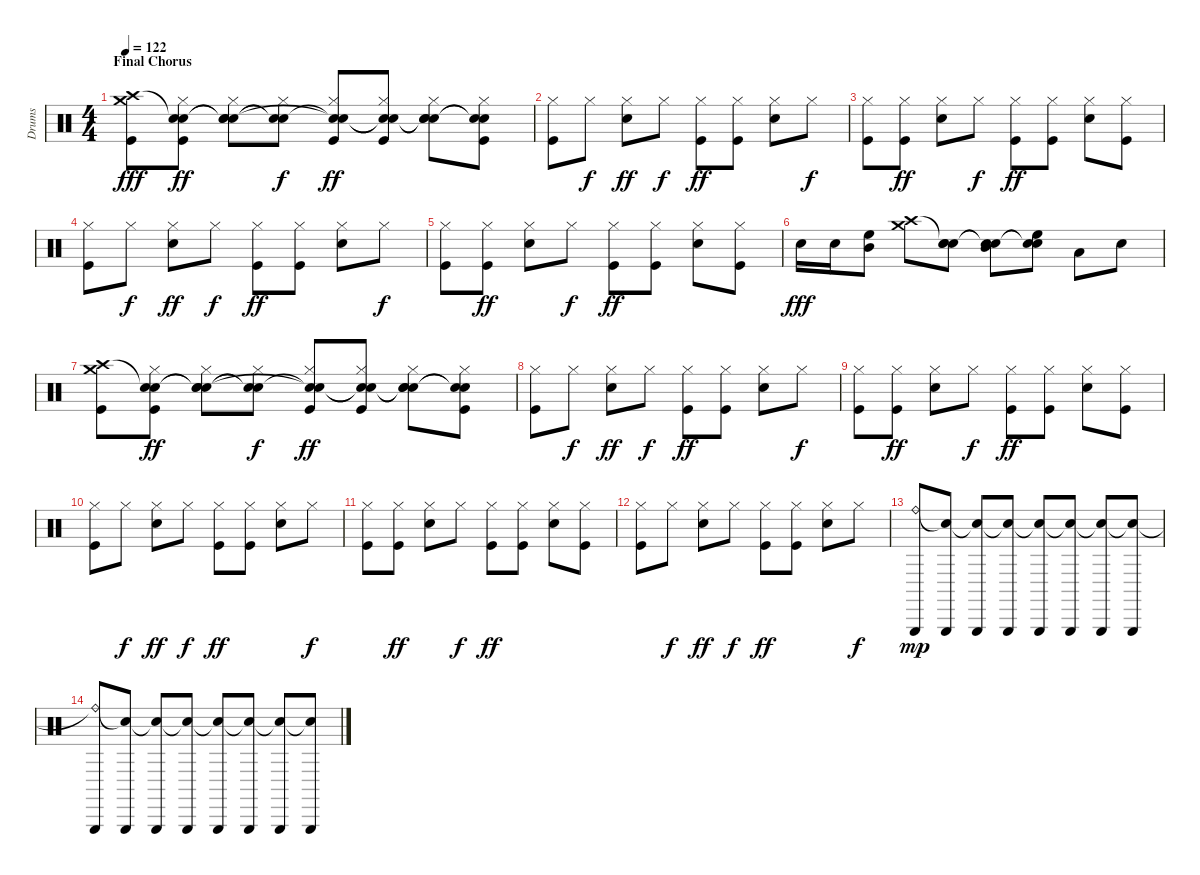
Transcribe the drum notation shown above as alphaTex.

\track ("Drums" "Drums") {instrument percussion}
\staff {score}
\articulation defaults
\ts (4 4)
\section ("" "Final Chorus")
\tempo 122
\clef neutral
\ks c
("Kick (hit)" "Crash medium (hit)" "Crash high (hit)").8{dy fff} ("Hi-Hat (closed)" "Kick (hit)" "Snare (hit)"{t} "Snare (hit)").8{dy ff} ("Hi-Hat (closed)" "Snare (hit) 2" "Snare (hit)"{t} "Snare (hit)"{t}).8 ("Hi-Hat (closed)" "Snare (hit)"{t} "Snare (hit)"{t}).8{dy f} ("Hi-Hat (closed)" "Kick (hit)" "Snare (hit)"{t} "Snare (hit)"{t}).8{dy ff} ("Hi-Hat (closed)" "Kick (hit)" "Snare (hit)"{t} "Snare (hit)"{t}).8 ("Hi-Hat (closed)" "Snare (hit) 2" "Snare (hit)"{t} "Snare (hit)"{t}).8 ("Hi-Hat (closed)" "Kick (hit)" "Snare (hit)"{t} "Snare (hit)"{t}).8 |
("Hi-Hat (closed)" "Kick (hit)").8 "Hi-Hat (closed)".8{dy f} ("Hi-Hat (closed)" "Snare (hit) 2").8{dy ff} "Hi-Hat (closed)".8{dy f} ("Hi-Hat (closed)" "Kick (hit)").8{dy ff} ("Hi-Hat (closed)" "Kick (hit)").8 ("Hi-Hat (closed)" "Snare (hit) 2").8 "Hi-Hat (closed)".8{dy f} |
("Hi-Hat (closed)" "Kick (hit)").8 ("Hi-Hat (closed)" "Kick (hit)").8{dy ff} ("Hi-Hat (closed)" "Snare (hit) 2").8 "Hi-Hat (closed)".8{dy f} ("Hi-Hat (closed)" "Kick (hit)").8{dy ff} ("Hi-Hat (closed)" "Kick (hit)").8 ("Hi-Hat (closed)" "Snare (hit) 2").8 ("Hi-Hat (closed)" "Kick (hit)").8 |
("Hi-Hat (closed)" "Kick (hit)").8 "Hi-Hat (closed)".8{dy f} ("Hi-Hat (closed)" "Snare (hit) 2").8{dy ff} "Hi-Hat (closed)".8{dy f} ("Hi-Hat (closed)" "Kick (hit)").8{dy ff} ("Hi-Hat (closed)" "Kick (hit)").8 ("Hi-Hat (closed)" "Snare (hit) 2").8 "Hi-Hat (closed)".8{dy f} |
("Hi-Hat (closed)" "Kick (hit)").8 ("Hi-Hat (closed)" "Kick (hit)").8{dy ff} ("Hi-Hat (closed)" "Snare (hit) 2").8 "Hi-Hat (closed)".8{dy f} ("Hi-Hat (closed)" "Kick (hit)").8{dy ff} ("Hi-Hat (closed)" "Kick (hit)").8 ("Hi-Hat (closed)" "Snare (hit) 2").8 ("Hi-Hat (closed)" "Kick (hit)").8 |
"Snare (hit) 2".16{dy fff} "Snare (hit) 2".16 ("Mid Tom (hit)" "High Floor Tom (hit)").8 ("Crash medium (hit)" "Crash high (hit)").8 ("Snare (hit) 2" "Snare (hit)"{t} "Snare (hit)").8 ("Mid Tom (hit)" "Snare (hit)"{t} "Snare (hit)"{t}).8 ("High Floor Tom (hit)" "Snare (hit)"{t} "Snare (hit)"{t}).8 "Low Floor Tom (hit)".8 "Snare (hit) 2".8 |
("Kick (hit)" "Crash medium (hit)" "Crash high (hit)").8 ("Hi-Hat (closed)" "Kick (hit)" "Snare (hit)"{t} "Snare (hit)").8{dy ff} ("Hi-Hat (closed)" "Snare (hit) 2" "Snare (hit)"{t} "Snare (hit)"{t}).8 ("Hi-Hat (closed)" "Snare (hit)"{t} "Snare (hit)"{t}).8{dy f} ("Hi-Hat (closed)" "Kick (hit)" "Snare (hit)"{t} "Snare (hit)"{t}).8{dy ff} ("Hi-Hat (closed)" "Kick (hit)" "Snare (hit)"{t} "Snare (hit)"{t}).8 ("Hi-Hat (closed)" "Snare (hit) 2" "Snare (hit)"{t} "Snare (hit)"{t}).8 ("Hi-Hat (closed)" "Kick (hit)" "Snare (hit)"{t} "Snare (hit)"{t}).8 |
("Hi-Hat (closed)" "Kick (hit)").8 "Hi-Hat (closed)".8{dy f} ("Hi-Hat (closed)" "Snare (hit) 2").8{dy ff} "Hi-Hat (closed)".8{dy f} ("Hi-Hat (closed)" "Kick (hit)").8{dy ff} ("Hi-Hat (closed)" "Kick (hit)").8 ("Hi-Hat (closed)" "Snare (hit) 2").8 "Hi-Hat (closed)".8{dy f} |
("Hi-Hat (closed)" "Kick (hit)").8 ("Hi-Hat (closed)" "Kick (hit)").8{dy ff} ("Hi-Hat (closed)" "Snare (hit) 2").8 "Hi-Hat (closed)".8{dy f} ("Hi-Hat (closed)" "Kick (hit)").8{dy ff} ("Hi-Hat (closed)" "Kick (hit)").8 ("Hi-Hat (closed)" "Snare (hit) 2").8 ("Hi-Hat (closed)" "Kick (hit)").8 |
("Hi-Hat (closed)" "Kick (hit)").8 "Hi-Hat (closed)".8{dy f} ("Hi-Hat (closed)" "Snare (hit) 2").8{dy ff} "Hi-Hat (closed)".8{dy f} ("Hi-Hat (closed)" "Kick (hit)").8{dy ff} ("Hi-Hat (closed)" "Kick (hit)").8 ("Hi-Hat (closed)" "Snare (hit) 2").8 "Hi-Hat (closed)".8{dy f} |
("Hi-Hat (closed)" "Kick (hit)").8 ("Hi-Hat (closed)" "Kick (hit)").8{dy ff} ("Hi-Hat (closed)" "Snare (hit) 2").8 "Hi-Hat (closed)".8{dy f} ("Hi-Hat (closed)" "Kick (hit)").8{dy ff} ("Hi-Hat (closed)" "Kick (hit)").8 ("Hi-Hat (closed)" "Snare (hit) 2").8 ("Hi-Hat (closed)" "Kick (hit)").8 |
("Hi-Hat (closed)" "Kick (hit)").8 "Hi-Hat (closed)".8{dy f} ("Hi-Hat (closed)" "Snare (hit) 2").8{dy ff} "Hi-Hat (closed)".8{dy f} ("Hi-Hat (closed)" "Kick (hit)").8{dy ff} ("Hi-Hat (closed)" "Kick (hit)").8 ("Hi-Hat (closed)" "Snare (hit) 2").8 "Hi-Hat (closed)".8{dy f} |
("Triangle (hit)" "Ride (bell)").8{dy mp volume 0} ("Triangle (hit)" "Snare (hit)"{t}).8 ("Triangle (hit)" "Snare (hit)"{t}).8 ("Triangle (hit)" "Snare (hit)"{t}).8 ("Triangle (hit)" "Snare (hit)"{t}).8 ("Triangle (hit)" "Snare (hit)"{t}).8 ("Triangle (hit)" "Snare (hit)"{t}).8 ("Triangle (hit)" "Snare (hit)"{t}).8 |
("Triangle (hit)" "Ride (bell)"{t}).8 ("Triangle (hit)" "Snare (hit)"{t}).8 ("Triangle (hit)" "Snare (hit)"{t}).8 ("Triangle (hit)" "Snare (hit)"{t}).8 ("Triangle (hit)" "Snare (hit)"{t}).8 ("Triangle (hit)" "Snare (hit)"{t}).8 ("Triangle (hit)" "Snare (hit)"{t}).8 ("Triangle (hit)" "Snare (hit)"{t}).8
